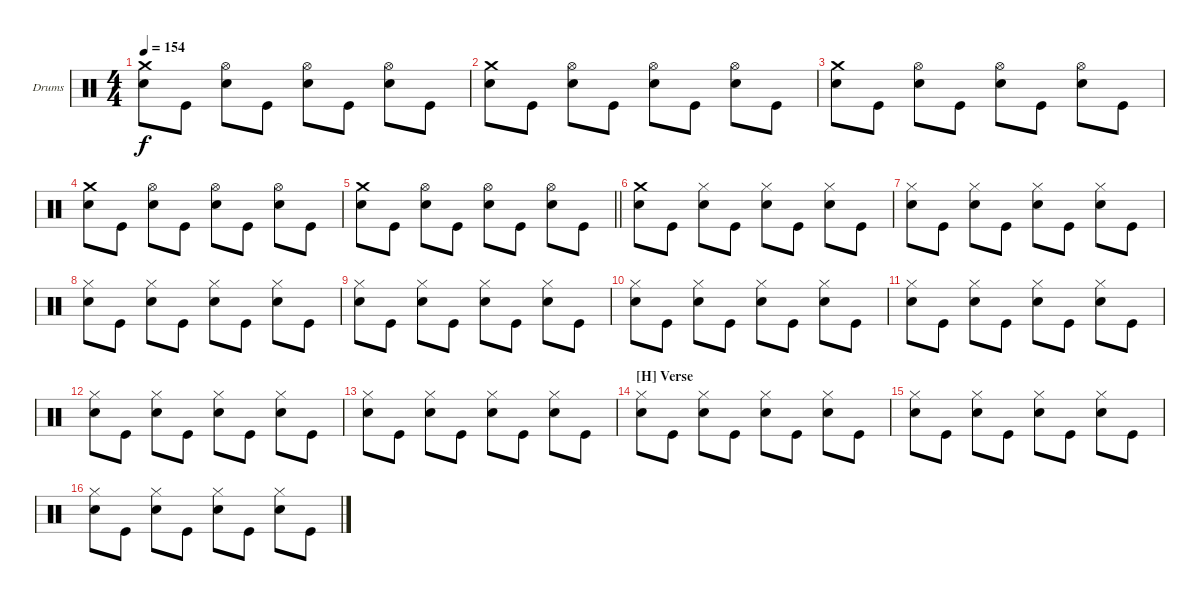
\defaultSystemsLayout 4
\bracketExtendMode groupsimilarinstruments
\firstSystemTrackNameOrientation horizontal
\otherSystemsTrackNameOrientation horizontal
\track ("Drumkit" "Drums") {instrument percussion}
\staff {score}
\articulation defaults
\ts (4 4)
\tempo 154
\clef neutral
\scale
1.02648
\ks c
("Crash medium (hit)" "Snare (hit) 2").8{dy f} "Kick (hit)".8 ("Hi-Hat (open)" "Snare (hit) 2").8 "Kick (hit)".8 ("Hi-Hat (open)" "Snare (hit) 2").8 "Kick (hit)".8 ("Hi-Hat (open)" "Snare (hit) 2").8 "Kick (hit)".8 |
\scale
0.973518 ("Crash medium (hit)" "Snare (hit) 2").8 "Kick (hit)".8 ("Hi-Hat (open)" "Snare (hit) 2").8 "Kick (hit)".8 ("Hi-Hat (open)" "Snare (hit) 2").8 "Kick (hit)".8 ("Hi-Hat (open)" "Snare (hit) 2").8 "Kick (hit)".8 |
\scale
1.02648 ("Crash medium (hit)" "Snare (hit) 2").8 "Kick (hit)".8 ("Hi-Hat (open)" "Snare (hit) 2").8 "Kick (hit)".8 ("Hi-Hat (open)" "Snare (hit) 2").8 "Kick (hit)".8 ("Hi-Hat (open)" "Snare (hit) 2").8 "Kick (hit)".8 |
\scale
0.973518 ("Crash medium (hit)" "Snare (hit) 2").8 "Kick (hit)".8 ("Hi-Hat (open)" "Snare (hit) 2").8 "Kick (hit)".8 ("Hi-Hat (open)" "Snare (hit) 2").8 "Kick (hit)".8 ("Hi-Hat (open)" "Snare (hit) 2").8 "Kick (hit)".8 |
\scale
1.02648
\barLineRight lightlight
("Crash medium (hit)" "Snare (hit) 2").8 "Kick (hit)".8 ("Hi-Hat (open)" "Snare (hit) 2").8 "Kick (hit)".8 ("Hi-Hat (open)" "Snare (hit) 2").8 "Kick (hit)".8 ("Hi-Hat (open)" "Snare (hit) 2").8 "Kick (hit)".8 |
\scale
0.973518 ("Crash medium (hit)" "Snare (hit) 2").8 "Kick (hit)".8 ("Hi-Hat (closed)" "Snare (hit) 2").8 "Kick (hit)".8 ("Hi-Hat (closed)" "Snare (hit) 2").8 "Kick (hit)".8 ("Hi-Hat (closed)" "Snare (hit) 2").8 "Kick (hit)".8 |
\scale
1.02648 ("Hi-Hat (closed)" "Snare (hit) 2").8 "Kick (hit)".8 ("Hi-Hat (closed)" "Snare (hit) 2").8 "Kick (hit)".8 ("Hi-Hat (closed)" "Snare (hit) 2").8 "Kick (hit)".8 ("Hi-Hat (closed)" "Snare (hit) 2").8 "Kick (hit)".8 |
\scale
0.973518 ("Hi-Hat (closed)" "Snare (hit) 2").8 "Kick (hit)".8 ("Hi-Hat (closed)" "Snare (hit) 2").8 "Kick (hit)".8 ("Hi-Hat (closed)" "Snare (hit) 2").8 "Kick (hit)".8 ("Hi-Hat (closed)" "Snare (hit) 2").8 "Kick (hit)".8 |
\scale
1.02648 ("Hi-Hat (closed)" "Snare (hit) 2").8 "Kick (hit)".8 ("Hi-Hat (closed)" "Snare (hit) 2").8 "Kick (hit)".8 ("Hi-Hat (closed)" "Snare (hit) 2").8 "Kick (hit)".8 ("Hi-Hat (closed)" "Snare (hit) 2").8 "Kick (hit)".8 |
\scale
0.973518 ("Hi-Hat (closed)" "Snare (hit) 2").8 "Kick (hit)".8 ("Hi-Hat (closed)" "Snare (hit) 2").8 "Kick (hit)".8 ("Hi-Hat (closed)" "Snare (hit) 2").8 "Kick (hit)".8 ("Hi-Hat (closed)" "Snare (hit) 2").8 "Kick (hit)".8 |
\scale
1.02648 ("Hi-Hat (closed)" "Snare (hit) 2").8 "Kick (hit)".8 ("Hi-Hat (closed)" "Snare (hit) 2").8 "Kick (hit)".8 ("Hi-Hat (closed)" "Snare (hit) 2").8 "Kick (hit)".8 ("Hi-Hat (closed)" "Snare (hit) 2").8 "Kick (hit)".8 |
\scale
0.973518 ("Hi-Hat (closed)" "Snare (hit) 2").8 "Kick (hit)".8 ("Hi-Hat (closed)" "Snare (hit) 2").8 "Kick (hit)".8 ("Hi-Hat (closed)" "Snare (hit) 2").8 "Kick (hit)".8 ("Hi-Hat (closed)" "Snare (hit) 2").8 "Kick (hit)".8 |
\scale
1.02648 ("Hi-Hat (closed)" "Snare (hit) 2").8 "Kick (hit)".8 ("Hi-Hat (closed)" "Snare (hit) 2").8 "Kick (hit)".8 ("Hi-Hat (closed)" "Snare (hit) 2").8 "Kick (hit)".8 ("Hi-Hat (closed)" "Snare (hit) 2").8 "Kick (hit)".8 |
\section ("H" "Verse")
\scale
0.973518 ("Hi-Hat (closed)" "Snare (hit) 2").8 "Kick (hit)".8 ("Hi-Hat (closed)" "Snare (hit) 2").8 "Kick (hit)".8 ("Hi-Hat (closed)" "Snare (hit) 2").8 "Kick (hit)".8 ("Hi-Hat (closed)" "Snare (hit) 2").8 "Kick (hit)".8 |
\scale
1.02648 ("Hi-Hat (closed)" "Snare (hit) 2").8 "Kick (hit)".8 ("Hi-Hat (closed)" "Snare (hit) 2").8 "Kick (hit)".8 ("Hi-Hat (closed)" "Snare (hit) 2").8 "Kick (hit)".8 ("Hi-Hat (closed)" "Snare (hit) 2").8 "Kick (hit)".8 |
\scale
0.973518 ("Hi-Hat (closed)" "Snare (hit) 2").8 "Kick (hit)".8 ("Hi-Hat (closed)" "Snare (hit) 2").8 "Kick (hit)".8 ("Hi-Hat (closed)" "Snare (hit) 2").8 "Kick (hit)".8 ("Hi-Hat (closed)" "Snare (hit) 2").8 "Kick (hit)".8
